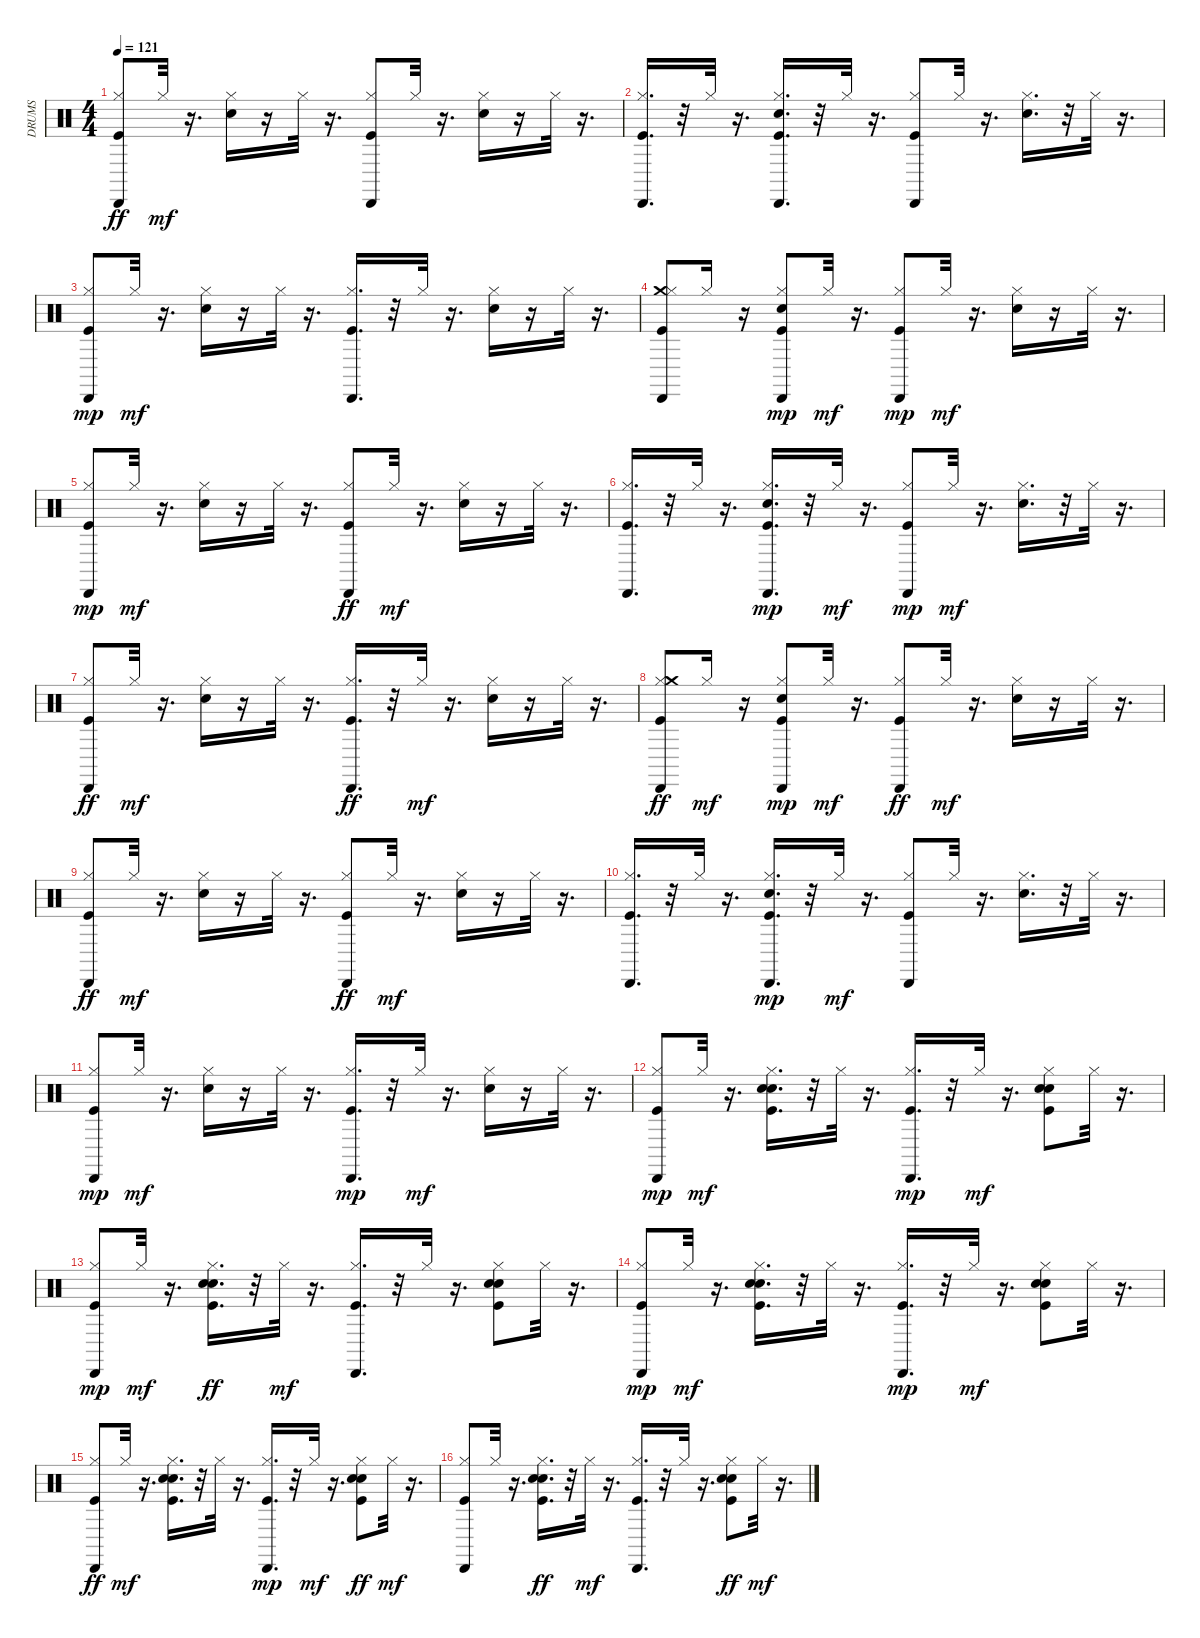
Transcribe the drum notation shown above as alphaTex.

\track ("DRUMS" "DRUMS") {instrument percussion}
\staff {score}
\articulation defaults
\ts (4 4)
\tempo 121
\clef neutral
\ks c
("Cabasa (hit)" "Hi-Hat (closed)" "Kick (hit)").8{dy ff} "Hi-Hat (closed)".32{dy mf} r.16{d} ("Hi-Hat (closed)" "Electric Snare (hit)").16 r.16 "Hi-Hat (closed)".32 r.16{d} ("Kick (hit)" "Cabasa (hit)" "Hi-Hat (closed)").8 "Hi-Hat (closed)".32 r.16{d} ("Hi-Hat (closed)" "Electric Snare (hit)").16 r.16 "Hi-Hat (closed)".32 r.16{d} |
("Kick (hit)" "Cabasa (hit)" "Hi-Hat (closed)").16{d} r.32 "Hi-Hat (closed)".32 r.16{d} ("Kick (hit)" "Cabasa (hit)" "Electric Snare (hit)" "Hi-Hat (closed)").16{d} r.32 "Hi-Hat (closed)".32 r.16{d} ("Cabasa (hit)" "Kick (hit)" "Hi-Hat (closed)").8 "Hi-Hat (closed)".32 r.16{d} ("Hi-Hat (closed)" "Electric Snare (hit)").16{d} r.32 "Hi-Hat (closed)".32 r.16{d} |
("Hi-Hat (closed)" "Kick (hit)" "Cabasa (hit)").8{dy mp} "Hi-Hat (closed)".32{dy mf} r.16{d} ("Electric Snare (hit)" "Hi-Hat (closed)").16 r.16 "Hi-Hat (closed)".32 r.16{d} ("Cabasa (hit)" "Kick (hit)" "Hi-Hat (closed)").16{d} r.32 "Hi-Hat (closed)".32 r.16{d} ("Hi-Hat (closed)" "Electric Snare (hit)").16 r.16 "Hi-Hat (closed)".32 r.16{d} |
("Kick (hit)" "Cabasa (hit)" "Crash medium (hit)" "Hi-Hat (closed)").8 "Hi-Hat (closed)".16 r.16 ("Kick (hit)" "Electric Snare (hit)" "Hi-Hat (closed)" "Cabasa (hit)").8{dy mp} "Hi-Hat (closed)".32{dy mf} r.16{d} ("Kick (hit)" "Hi-Hat (closed)" "Cabasa (hit)").8{dy mp} "Hi-Hat (closed)".32{dy mf} r.16{d} ("Hi-Hat (closed)" "Electric Snare (hit)").16 r.16 "Hi-Hat (closed)".32 r.16{d} |
("Kick (hit)" "Hi-Hat (closed)" "Cabasa (hit)").8{dy mp} "Hi-Hat (closed)".32{dy mf} r.16{d} ("Hi-Hat (closed)" "Electric Snare (hit)").16 r.16 "Hi-Hat (closed)".32 r.16{d} ("Hi-Hat (closed)" "Cabasa (hit)" "Kick (hit)").8{dy ff} "Hi-Hat (closed)".32{dy mf} r.16{d} ("Hi-Hat (closed)" "Electric Snare (hit)").16 r.16 "Hi-Hat (closed)".32 r.16{d} |
("Kick (hit)" "Cabasa (hit)" "Hi-Hat (closed)").16{d} r.32 "Hi-Hat (closed)".32 r.16{d} ("Kick (hit)" "Hi-Hat (closed)" "Electric Snare (hit)" "Cabasa (hit)").16{d dy mp} r.32 "Hi-Hat (closed)".32{dy mf} r.16{d} ("Hi-Hat (closed)" "Kick (hit)" "Cabasa (hit)").8{dy mp} "Hi-Hat (closed)".32{dy mf} r.16{d} ("Hi-Hat (closed)" "Electric Snare (hit)").16{d} r.32 "Hi-Hat (closed)".32 r.16{d} |
("Hi-Hat (closed)" "Cabasa (hit)" "Kick (hit)").8{dy ff} "Hi-Hat (closed)".32{dy mf} r.16{d} ("Electric Snare (hit)" "Hi-Hat (closed)").16 r.16 "Hi-Hat (closed)".32 r.16{d} ("Cabasa (hit)" "Hi-Hat (closed)" "Kick (hit)").16{d dy ff} r.32 "Hi-Hat (closed)".32{dy mf} r.16{d} ("Hi-Hat (closed)" "Electric Snare (hit)").16 r.16 "Hi-Hat (closed)".32 r.16{d} |
("Hi-Hat (closed)" "Cabasa (hit)" "Crash medium (hit)" "Kick (hit)").8{dy ff} "Hi-Hat (closed)".16{dy mf} r.16 ("Hi-Hat (closed)" "Kick (hit)" "Electric Snare (hit)" "Cabasa (hit)").8{dy mp} "Hi-Hat (closed)".32{dy mf} r.16{d} ("Cabasa (hit)" "Hi-Hat (closed)" "Kick (hit)").8{dy ff} "Hi-Hat (closed)".32{dy mf} r.16{d} ("Electric Snare (hit)" "Hi-Hat (closed)").16 r.16 "Hi-Hat (closed)".32 r.16{d} |
("Cabasa (hit)" "Hi-Hat (closed)" "Kick (hit)").8{dy ff} "Hi-Hat (closed)".32{dy mf} r.16{d} ("Hi-Hat (closed)" "Electric Snare (hit)").16 r.16 "Hi-Hat (closed)".32 r.16{d} ("Hi-Hat (closed)" "Cabasa (hit)" "Kick (hit)").8{dy ff} "Hi-Hat (closed)".32{dy mf} r.16{d} ("Hi-Hat (closed)" "Electric Snare (hit)").16 r.16 "Hi-Hat (closed)".32 r.16{d} |
("Cabasa (hit)" "Kick (hit)" "Hi-Hat (closed)").16{d} r.32 "Hi-Hat (closed)".32 r.16{d} ("Hi-Hat (closed)" "Kick (hit)" "Electric Snare (hit)" "Cabasa (hit)").16{d dy mp} r.32 "Hi-Hat (closed)".32{dy mf} r.16{d} ("Kick (hit)" "Cabasa (hit)" "Hi-Hat (closed)").8 "Hi-Hat (closed)".32 r.16{d} ("Hi-Hat (closed)" "Electric Snare (hit)").16{d} r.32 "Hi-Hat (closed)".32 r.16{d} |
("Hi-Hat (closed)" "Kick (hit)" "Cabasa (hit)").8{dy mp} "Hi-Hat (closed)".32{dy mf} r.16{d} ("Hi-Hat (closed)" "Electric Snare (hit)").16 r.16 "Hi-Hat (closed)".32 r.16{d} ("Hi-Hat (closed)" "Kick (hit)" "Cabasa (hit)").16{d dy mp} r.32 "Hi-Hat (closed)".32{dy mf} r.16{d} ("Hi-Hat (closed)" "Electric Snare (hit)").16 r.16 "Hi-Hat (closed)".32 r.16{d} |
("Kick (hit)" "Hi-Hat (closed)" "Cabasa (hit)").8{dy mp} "Hi-Hat (closed)".32{dy mf} r.16{d} ("Hand Clap (hit)" "Electric Snare (hit)" "Kick (hit)" "Hi-Hat (closed)").16{d} r.32 "Hi-Hat (closed)".32 r.16{d} ("Kick (hit)" "Hi-Hat (closed)" "Cabasa (hit)").16{d dy mp} r.32 "Hi-Hat (closed)".32{dy mf} r.16{d} ("Kick (hit)" "Hand Clap (hit)" "Hi-Hat (closed)" "Electric Snare (hit)").8 "Hi-Hat (closed)".32 r.16{d} |
("Hi-Hat (closed)" "Kick (hit)" "Cabasa (hit)").8{dy mp} "Hi-Hat (closed)".32{dy mf} r.16{d} ("Hi-Hat (closed)" "Hand Clap (hit)" "Kick (hit)" "Electric Snare (hit)").16{d dy ff} r.32 "Hi-Hat (closed)".32{dy mf} r.16{d} ("Cabasa (hit)" "Kick (hit)" "Hi-Hat (closed)").16{d} r.32 "Hi-Hat (closed)".32 r.16{d} ("Electric Snare (hit)" "Kick (hit)" "Hand Clap (hit)" "Hi-Hat (closed)").8 "Hi-Hat (closed)".32 r.16{d} |
("Kick (hit)" "Hi-Hat (closed)" "Cabasa (hit)").8{dy mp} "Hi-Hat (closed)".32{dy mf} r.16{d} ("Kick (hit)" "Hand Clap (hit)" "Electric Snare (hit)" "Hi-Hat (closed)").16{d} r.32 "Hi-Hat (closed)".32 r.16{d} ("Kick (hit)" "Hi-Hat (closed)" "Cabasa (hit)").16{d dy mp} r.32 "Hi-Hat (closed)".32{dy mf} r.16{d} ("Kick (hit)" "Hi-Hat (closed)" "Electric Snare (hit)" "Hand Clap (hit)").8 "Hi-Hat (closed)".32 r.16{d} |
("Cabasa (hit)" "Hi-Hat (closed)" "Kick (hit)").8{dy ff} "Hi-Hat (closed)".32{dy mf} r.16{d} ("Kick (hit)" "Hand Clap (hit)" "Electric Snare (hit)" "Hi-Hat (closed)").16{d} r.32 "Hi-Hat (closed)".32 r.16{d} ("Kick (hit)" "Hi-Hat (closed)" "Cabasa (hit)").16{d dy mp} r.32 "Hi-Hat (closed)".32{dy mf} r.16{d} ("Hi-Hat (closed)" "Electric Snare (hit)" "Hand Clap (hit)" "Kick (hit)").8{dy ff} "Hi-Hat (closed)".32{dy mf} r.16{d} |
("Cabasa (hit)" "Kick (hit)" "Hi-Hat (closed)").8 "Hi-Hat (closed)".32 r.16{d} ("Electric Snare (hit)" "Hi-Hat (closed)" "Kick (hit)" "Hand Clap (hit)").16{d dy ff} r.32 "Hi-Hat (closed)".32{dy mf} r.16{d} ("Kick (hit)" "Cabasa (hit)" "Hi-Hat (closed)").16{d} r.32 "Hi-Hat (closed)".32 r.16{d} ("Hi-Hat (closed)" "Kick (hit)" "Hand Clap (hit)" "Electric Snare (hit)").8{dy ff} "Hi-Hat (closed)".32{dy mf} r.16{d}
